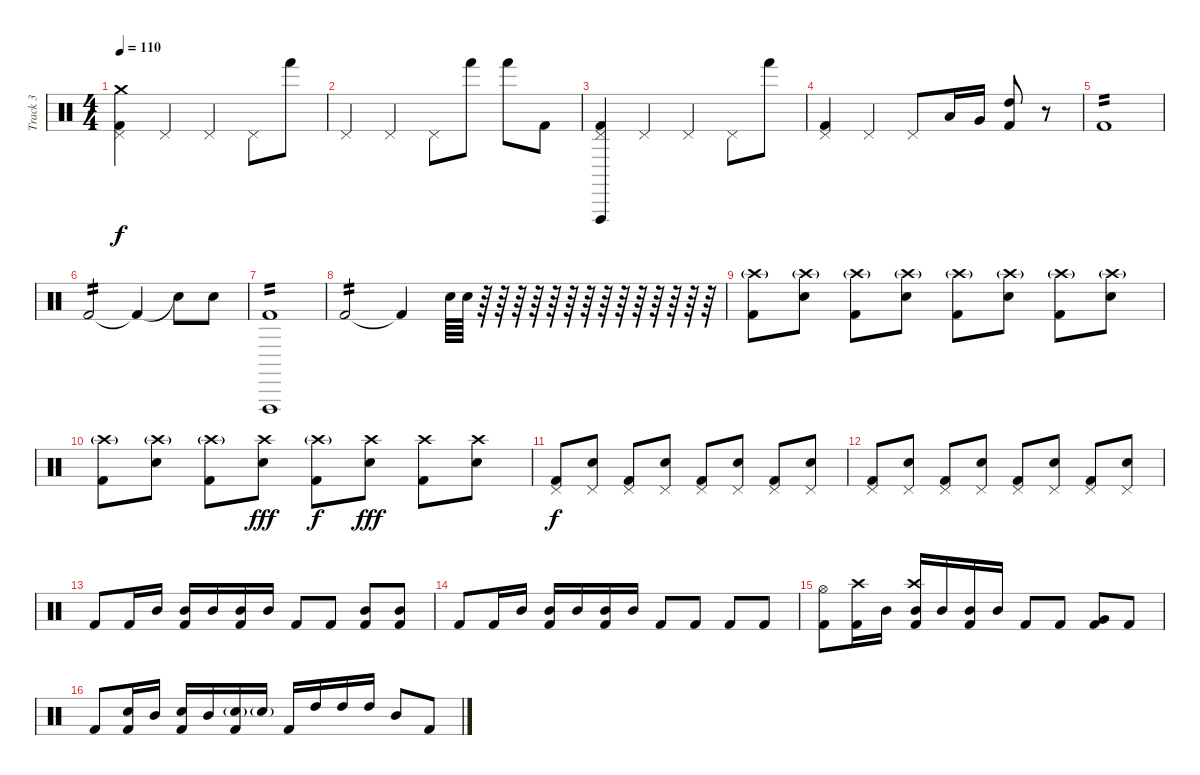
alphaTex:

\track ("Track 3" "Track 3") {instrument percussion}
\staff {score}
\articulation defaults
\ts (4 4)
\tempo 110
\clef neutral
\ks c
("Kick (hit) 2" "Pedal Hi-Hat (hit)" "Crash medium (hit)").4{dy f} "Pedal Hi-Hat (hit)".4 "Pedal Hi-Hat (hit)".4 "Pedal Hi-Hat (hit)".8 "Hand (hit)".8 |
"Pedal Hi-Hat (hit)".4 "Pedal Hi-Hat (hit)".4 "Pedal Hi-Hat (hit)".8 "Hand (hit)".8 "Hand (hit)".8 "Kick (hit) 2".8 |
("Kick (hit) 2" "Vibraslap (hit)" "Pedal Hi-Hat (hit)").4 "Pedal Hi-Hat (hit)".4 "Pedal Hi-Hat (hit)".4 "Pedal Hi-Hat (hit)".8 "Hand (hit)".8 |
("Kick (hit) 2" "Pedal Hi-Hat (hit)").4 "Pedal Hi-Hat (hit)".4 "Pedal Hi-Hat (hit)".8 "Low Tom (hit)".16 "Very Low Tom (hit)".16 ("High Tom (hit)" "Kick (hit) 2").8 r.8 |
"Kick (hit) 2".1{tp 2} |
"Kick (hit) 2".2{tp 2} "Kick (hit) 2"{t}.4 "Electric Snare (hit)"{t}.8 "Electric Snare (hit)".8 |
("Vibraslap (hit)" "Kick (hit) 2").1{tp 2} |
"Kick (hit) 2".2{tp 2} "Kick (hit) 2"{t}.4 "Electric Snare (hit)".64 "Electric Snare (hit)".64 r.64 r.64 r.64 r.64 r.64 r.64 r.64 r.64 r.64 r.64 r.64 r.64 r.64 r.64 |
("Kick (hit) 2" "Crash high (hit)"{g}).8 ("Electric Snare (hit)" "Crash high (hit)"{g}).8 ("Kick (hit) 2" "Crash high (hit)"{g}).8 ("Electric Snare (hit)" "Crash high (hit)"{g}).8 ("Kick (hit) 2" "Crash high (hit)"{g}).8 ("Electric Snare (hit)" "Crash high (hit)"{g}).8 ("Kick (hit) 2" "Crash high (hit)"{g}).8 ("Electric Snare (hit)" "Crash high (hit)"{g}).8 |
("Kick (hit) 2" "Crash high (hit)"{g}).8 ("Electric Snare (hit)" "Crash high (hit)"{g}).8 ("Kick (hit) 2" "Crash high (hit)"{g}).8 ("Electric Snare (hit)" "Crash high (hit)").8{dy fff} ("Kick (hit) 2" "Crash high (hit)"{g}).8{dy f} ("Electric Snare (hit)" "Crash high (hit)").8{dy fff} ("Kick (hit) 2" "Crash high (hit)").8 ("Electric Snare (hit)" "Crash high (hit)").8 |
("Kick (hit) 2" "Pedal Hi-Hat (hit)").8{dy f} ("Electric Snare (hit)" "Pedal Hi-Hat (hit)").8 ("Kick (hit) 2" "Pedal Hi-Hat (hit)").8 ("Electric Snare (hit)" "Pedal Hi-Hat (hit)").8 ("Kick (hit) 2" "Pedal Hi-Hat (hit)").8 ("Electric Snare (hit)" "Pedal Hi-Hat (hit)").8 ("Kick (hit) 2" "Pedal Hi-Hat (hit)").8 ("Electric Snare (hit)" "Pedal Hi-Hat (hit)").8 |
("Kick (hit) 2" "Pedal Hi-Hat (hit)").8 ("Electric Snare (hit)" "Pedal Hi-Hat (hit)").8 ("Kick (hit) 2" "Pedal Hi-Hat (hit)").8 ("Electric Snare (hit)" "Pedal Hi-Hat (hit)").8 ("Kick (hit) 2" "Pedal Hi-Hat (hit)").8 ("Electric Snare (hit)" "Pedal Hi-Hat (hit)").8 ("Kick (hit) 2" "Pedal Hi-Hat (hit)").8 ("Electric Snare (hit)" "Pedal Hi-Hat (hit)").8 |
"Kick (hit) 2".8 "Kick (hit) 2".16 "Mid Tom (hit)".16 ("Mid Tom (hit)" "Kick (hit) 2").16 "Mid Tom (hit)".16 ("Mid Tom (hit)" "Kick (hit) 2").16 "Mid Tom (hit)".16 "Kick (hit) 2".8 "Kick (hit) 2".8 ("Mid Tom (hit)" "Kick (hit) 2").8 ("Mid Tom (hit)" "Kick (hit) 2").8 |
"Kick (hit) 2".8 "Kick (hit) 2".16 "Mid Tom (hit)".16 ("Mid Tom (hit)" "Kick (hit) 2").16 "Mid Tom (hit)".16 ("Mid Tom (hit)" "Kick (hit) 2").16 "Mid Tom (hit)".16 "Kick (hit) 2".8 "Kick (hit) 2".8 "Kick (hit) 2".8 "Kick (hit) 2".8 |
("Hi-Hat (open)" "Kick (hit) 2").8 ("Crash high (hit)" "Kick (hit) 2").16 "Mid Tom (hit)".16 ("Crash high (hit)" "Mid Tom (hit)" "Kick (hit) 2").16 "Mid Tom (hit)".16 ("Mid Tom (hit)" "Kick (hit) 2").16 "Mid Tom (hit)".16 "Kick (hit) 2".8 "Kick (hit) 2".8 ("Very Low Tom (hit)" "Kick (hit) 2").8 "Kick (hit) 2".8 |
"Kick (hit) 2".8 ("Electric Snare (hit)" "Kick (hit) 2").16 "Mid Tom (hit)".16 ("Electric Snare (hit)" "Kick (hit) 2").16 "Mid Tom (hit)".16 ("Electric Snare (hit)"{g} "Kick (hit) 2").16 "Electric Snare (hit)"{g}.16 "Kick (hit) 2".16 "High Tom (hit)".16 "High Tom (hit)".16 "High Tom (hit)".16 "Mid Tom (hit)".8 "Kick (hit) 2".8
